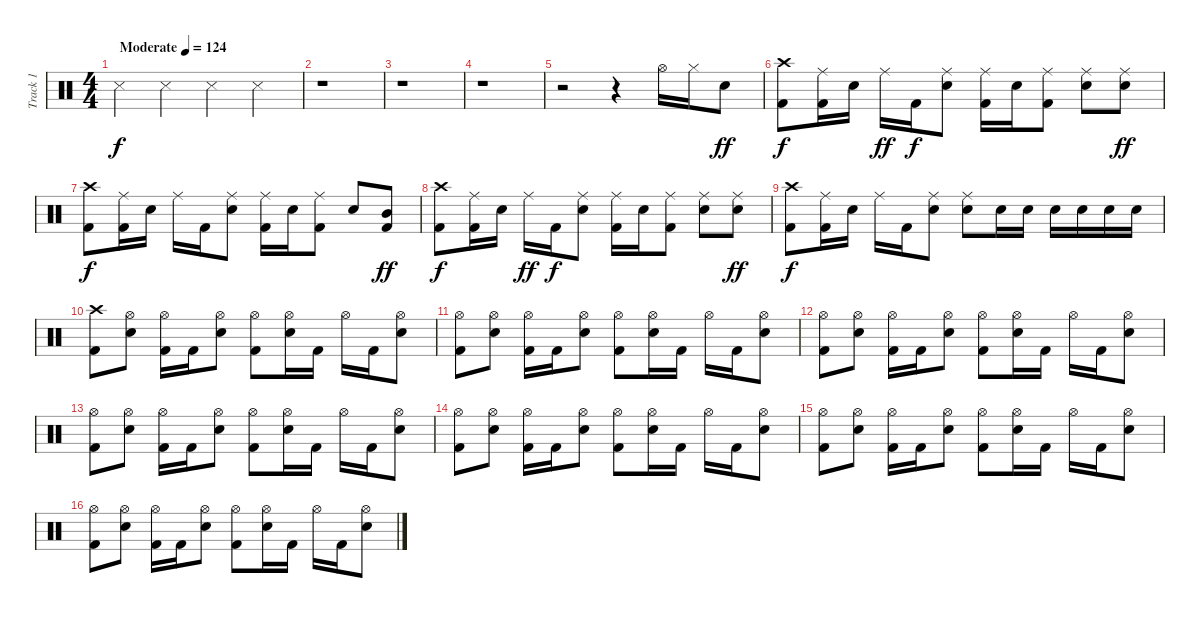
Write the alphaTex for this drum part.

\track ("Track 1" "Track 1") {instrument percussion}
\staff {score}
\articulation defaults
\ts (4 4)
\tempo (124 "Moderate")
\clef neutral
\ks c "Snare (side stick) 3".4{dy f} "Snare (side stick) 3".4 "Snare (side stick) 3".4 "Snare (side stick) 3".4
|
r.1 |
r.1 |
r.1 |
r.2 r.4 "Hi-Hat (open)".16 "Hi-Hat (closed)".16 "Electric Snare (hit)".8{dy ff} |
("Crash high (hit)" "Kick (hit) 2").8{dy f} ("Ride (middle)" "Kick (hit) 2").16 "Electric Snare (hit)".16 "Ride (middle)".16{dy ff} "Kick (hit) 2".16{dy f} ("Ride (middle)" "Electric Snare (hit)").8 ("Ride (middle)" "Kick (hit) 2").16 "Electric Snare (hit)".16 ("Ride (middle)" "Kick (hit) 2").8 ("Ride (middle)" "Electric Snare (hit)").8 ("Ride (middle)" "Electric Snare (hit)").8{dy ff} |
("Crash high (hit)" "Kick (hit) 2").8{dy f} ("Ride (middle)" "Kick (hit) 2").16 "Electric Snare (hit)".16 "Ride (middle)".16 "Kick (hit) 2".16 ("Ride (middle)" "Electric Snare (hit)").8 ("Ride (middle)" "Kick (hit) 2").16 "Electric Snare (hit)".16 ("Ride (middle)" "Kick (hit) 2").8 "Electric Snare (hit)".8 ("Mid Tom (hit)" "Kick (hit) 2").8{dy ff} |
("Crash high (hit)" "Kick (hit) 2").8{dy f} ("Ride (middle)" "Kick (hit) 2").16 "Electric Snare (hit)".16 "Ride (middle)".16{dy ff} "Kick (hit) 2".16{dy f} ("Ride (middle)" "Electric Snare (hit)").8 ("Ride (middle)" "Kick (hit) 2").16 "Electric Snare (hit)".16 ("Ride (middle)" "Kick (hit) 2").8 ("Ride (middle)" "Electric Snare (hit)").8 ("Ride (middle)" "Electric Snare (hit)").8{dy ff} |
("Crash high (hit)" "Kick (hit) 2").8{dy f} ("Ride (middle)" "Kick (hit) 2").16 "Electric Snare (hit)".16 "Ride (middle)".16 "Kick (hit) 2".16 ("Ride (middle)" "Electric Snare (hit)").8 ("Ride (middle)" "Electric Snare (hit)").8 "Electric Snare (hit)".16 "Electric Snare (hit)".16 "Electric Snare (hit)".16 "Electric Snare (hit)".16 "Electric Snare (hit)".16 "Electric Snare (hit)".16 |
("Crash high (hit)" "Kick (hit) 2").8 ("Hi-Hat (open)" "Electric Snare (hit)").8 ("Hi-Hat (open)" "Kick (hit) 2").16 "Kick (hit) 2".16 ("Hi-Hat (open)" "Electric Snare (hit)").8 ("Hi-Hat (open)" "Kick (hit) 2").8 ("Hi-Hat (open)" "Electric Snare (hit)").16 "Kick (hit) 2".16 "Hi-Hat (open)".16 "Kick (hit) 2".16 ("Hi-Hat (open)" "Electric Snare (hit)").8 |
("Hi-Hat (open)" "Kick (hit) 2").8 ("Hi-Hat (open)" "Electric Snare (hit)").8 ("Hi-Hat (open)" "Kick (hit) 2").16 "Kick (hit) 2".16 ("Hi-Hat (open)" "Electric Snare (hit)").8 ("Hi-Hat (open)" "Kick (hit) 2").8 ("Hi-Hat (open)" "Electric Snare (hit)").16 "Kick (hit) 2".16 "Hi-Hat (open)".16 "Kick (hit) 2".16 ("Hi-Hat (open)" "Electric Snare (hit)").8 |
("Hi-Hat (open)" "Kick (hit) 2").8 ("Hi-Hat (open)" "Electric Snare (hit)").8 ("Hi-Hat (open)" "Kick (hit) 2").16 "Kick (hit) 2".16 ("Hi-Hat (open)" "Electric Snare (hit)").8 ("Hi-Hat (open)" "Kick (hit) 2").8 ("Hi-Hat (open)" "Electric Snare (hit)").16 "Kick (hit) 2".16 "Hi-Hat (open)".16 "Kick (hit) 2".16 ("Hi-Hat (open)" "Electric Snare (hit)").8 |
("Hi-Hat (open)" "Kick (hit) 2").8 ("Hi-Hat (open)" "Electric Snare (hit)").8 ("Hi-Hat (open)" "Kick (hit) 2").16 "Kick (hit) 2".16 ("Hi-Hat (open)" "Electric Snare (hit)").8 ("Hi-Hat (open)" "Kick (hit) 2").8 ("Hi-Hat (open)" "Electric Snare (hit)").16 "Kick (hit) 2".16 "Hi-Hat (open)".16 "Kick (hit) 2".16 ("Hi-Hat (open)" "Electric Snare (hit)").8 |
("Hi-Hat (open)" "Kick (hit) 2").8 ("Hi-Hat (open)" "Electric Snare (hit)").8 ("Hi-Hat (open)" "Kick (hit) 2").16 "Kick (hit) 2".16 ("Hi-Hat (open)" "Electric Snare (hit)").8 ("Hi-Hat (open)" "Kick (hit) 2").8 ("Hi-Hat (open)" "Electric Snare (hit)").16 "Kick (hit) 2".16 "Hi-Hat (open)".16 "Kick (hit) 2".16 ("Hi-Hat (open)" "Electric Snare (hit)").8 |
("Hi-Hat (open)" "Kick (hit) 2").8 ("Hi-Hat (open)" "Electric Snare (hit)").8 ("Hi-Hat (open)" "Kick (hit) 2").16 "Kick (hit) 2".16 ("Hi-Hat (open)" "Electric Snare (hit)").8 ("Hi-Hat (open)" "Kick (hit) 2").8 ("Hi-Hat (open)" "Electric Snare (hit)").16 "Kick (hit) 2".16 "Hi-Hat (open)".16 "Kick (hit) 2".16 ("Hi-Hat (open)" "Electric Snare (hit)").8 |
("Hi-Hat (open)" "Kick (hit) 2").8 ("Hi-Hat (open)" "Electric Snare (hit)").8 ("Hi-Hat (open)" "Kick (hit) 2").16 "Kick (hit) 2".16 ("Hi-Hat (open)" "Electric Snare (hit)").8 ("Hi-Hat (open)" "Kick (hit) 2").8 ("Hi-Hat (open)" "Electric Snare (hit)").16 "Kick (hit) 2".16 "Hi-Hat (open)".16 "Kick (hit) 2".16 ("Hi-Hat (open)" "Electric Snare (hit)").8
